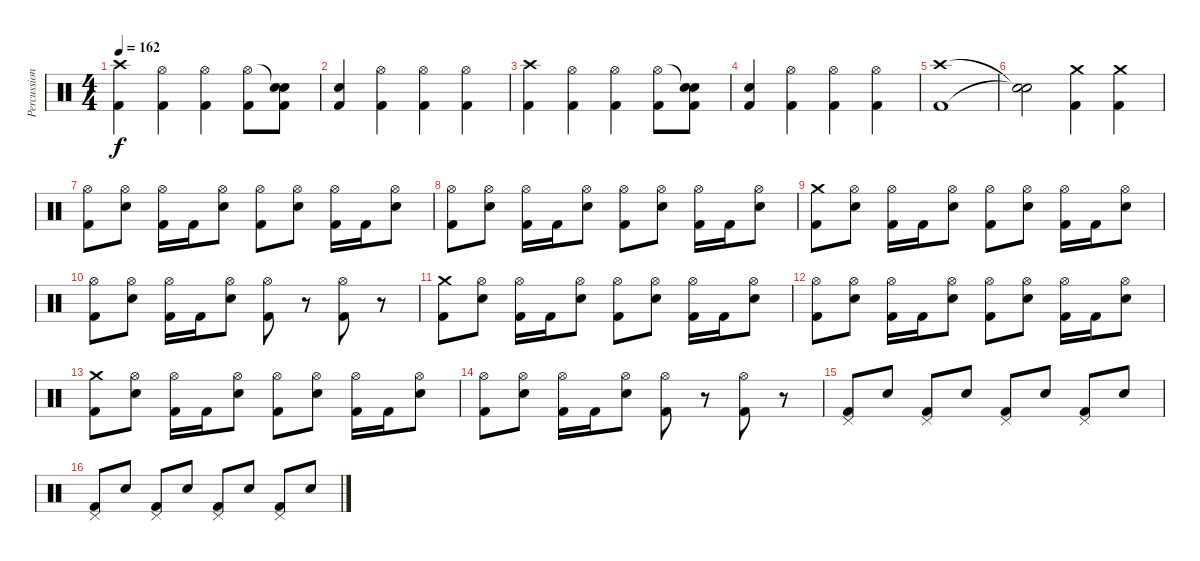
\track ("Percussions" "Percussion") {instrument percussion}
\staff {score}
\articulation defaults
\ts (4 4)
\tempo 162
\clef neutral
\ks c
("Kick (hit) 2" "Crash high (hit)").4{dy f} ("Kick (hit) 2" "Hi-Hat (open)").4 ("Kick (hit) 2" "Hi-Hat (open)").4 ("Kick (hit) 2" "Hi-Hat (open)").8 ("Electric Snare (hit)" "Electric Snare (hit)"{t} "Kick (hit) 2").8 |
("Electric Snare (hit)" "Kick (hit) 2").4 ("Kick (hit) 2" "Hi-Hat (open)").4 ("Kick (hit) 2" "Hi-Hat (open)").4 ("Kick (hit) 2" "Hi-Hat (open)").4 |
("Kick (hit) 2" "Crash high (hit)").4 ("Kick (hit) 2" "Hi-Hat (open)").4 ("Kick (hit) 2" "Hi-Hat (open)").4 ("Kick (hit) 2" "Hi-Hat (open)").8 ("Electric Snare (hit)" "Electric Snare (hit)"{t} "Kick (hit) 2").8 |
("Electric Snare (hit)" "Kick (hit) 2").4 ("Kick (hit) 2" "Hi-Hat (open)").4 ("Kick (hit) 2" "Hi-Hat (open)").4 ("Kick (hit) 2" "Hi-Hat (open)").4 |
("Kick (hit) 2" "Crash high (hit)").1 |
("Snare (hit)"{t} "Snare (hit)"{t}).2 ("Kick (hit) 2" "Crash medium (hit)").4 ("Kick (hit) 2" "Crash medium (hit)").4 |
("Kick (hit) 2" "Hi-Hat (open)").8 ("Electric Snare (hit)" "Hi-Hat (open)").8 ("Kick (hit) 2" "Hi-Hat (open)").16 "Kick (hit) 2".16 ("Electric Snare (hit)" "Hi-Hat (open)").8 ("Kick (hit) 2" "Hi-Hat (open)").8 ("Electric Snare (hit)" "Hi-Hat (open)").8 ("Kick (hit) 2" "Hi-Hat (open)").16 "Kick (hit) 2".16 ("Electric Snare (hit)" "Hi-Hat (open)").8 |
("Kick (hit) 2" "Hi-Hat (open)").8 ("Electric Snare (hit)" "Hi-Hat (open)").8 ("Kick (hit) 2" "Hi-Hat (open)").16 "Kick (hit) 2".16 ("Electric Snare (hit)" "Hi-Hat (open)").8 ("Kick (hit) 2" "Hi-Hat (open)").8 ("Electric Snare (hit)" "Hi-Hat (open)").8 ("Kick (hit) 2" "Hi-Hat (open)").16 "Kick (hit) 2".16 ("Electric Snare (hit)" "Hi-Hat (open)").8 |
("Kick (hit) 2" "Crash medium (hit)").8 ("Electric Snare (hit)" "Hi-Hat (open)").8 ("Kick (hit) 2" "Hi-Hat (open)").16 "Kick (hit) 2".16 ("Electric Snare (hit)" "Hi-Hat (open)").8 ("Kick (hit) 2" "Hi-Hat (open)").8 ("Electric Snare (hit)" "Hi-Hat (open)").8 ("Kick (hit) 2" "Hi-Hat (open)").16 "Kick (hit) 2".16 ("Electric Snare (hit)" "Hi-Hat (open)").8 |
("Kick (hit) 2" "Hi-Hat (open)").8 ("Electric Snare (hit)" "Hi-Hat (open)").8 ("Kick (hit) 2" "Hi-Hat (open)").16 "Kick (hit) 2".16 ("Electric Snare (hit)" "Hi-Hat (open)").8 ("Kick (hit) 2" "Hi-Hat (open)").8 r.8 ("Kick (hit) 2" "Hi-Hat (open)").8 r.8 |
("Kick (hit) 2" "Crash medium (hit)").8 ("Electric Snare (hit)" "Hi-Hat (open)").8 ("Kick (hit) 2" "Hi-Hat (open)").16 "Kick (hit) 2".16 ("Electric Snare (hit)" "Hi-Hat (open)").8 ("Kick (hit) 2" "Hi-Hat (open)").8 ("Electric Snare (hit)" "Hi-Hat (open)").8 ("Kick (hit) 2" "Hi-Hat (open)").16 "Kick (hit) 2".16 ("Electric Snare (hit)" "Hi-Hat (open)").8 |
("Kick (hit) 2" "Hi-Hat (open)").8 ("Electric Snare (hit)" "Hi-Hat (open)").8 ("Kick (hit) 2" "Hi-Hat (open)").16 "Kick (hit) 2".16 ("Electric Snare (hit)" "Hi-Hat (open)").8 ("Kick (hit) 2" "Hi-Hat (open)").8 ("Electric Snare (hit)" "Hi-Hat (open)").8 ("Kick (hit) 2" "Hi-Hat (open)").16 "Kick (hit) 2".16 ("Electric Snare (hit)" "Hi-Hat (open)").8 |
("Kick (hit) 2" "Crash medium (hit)").8 ("Electric Snare (hit)" "Hi-Hat (open)").8 ("Kick (hit) 2" "Hi-Hat (open)").16 "Kick (hit) 2".16 ("Electric Snare (hit)" "Hi-Hat (open)").8 ("Kick (hit) 2" "Hi-Hat (open)").8 ("Electric Snare (hit)" "Hi-Hat (open)").8 ("Kick (hit) 2" "Hi-Hat (open)").16 "Kick (hit) 2".16 ("Electric Snare (hit)" "Hi-Hat (open)").8 |
("Kick (hit) 2" "Hi-Hat (open)").8 ("Electric Snare (hit)" "Hi-Hat (open)").8 ("Kick (hit) 2" "Hi-Hat (open)").16 "Kick (hit) 2".16 ("Electric Snare (hit)" "Hi-Hat (open)").8 ("Kick (hit) 2" "Hi-Hat (open)").8 r.8 ("Kick (hit) 2" "Hi-Hat (open)").8 r.8 |
("Kick (hit) 2" "Pedal Hi-Hat (hit)").8 "Electric Snare (hit)".8 ("Kick (hit) 2" "Pedal Hi-Hat (hit)").8 "Electric Snare (hit)".8 ("Kick (hit) 2" "Pedal Hi-Hat (hit)").8 "Electric Snare (hit)".8 ("Kick (hit) 2" "Pedal Hi-Hat (hit)").8 "Electric Snare (hit)".8 |
("Kick (hit) 2" "Pedal Hi-Hat (hit)").8 "Electric Snare (hit)".8 ("Kick (hit) 2" "Pedal Hi-Hat (hit)").8 "Electric Snare (hit)".8 ("Kick (hit) 2" "Pedal Hi-Hat (hit)").8 "Electric Snare (hit)".8 ("Kick (hit) 2" "Pedal Hi-Hat (hit)").8 "Electric Snare (hit)".8
